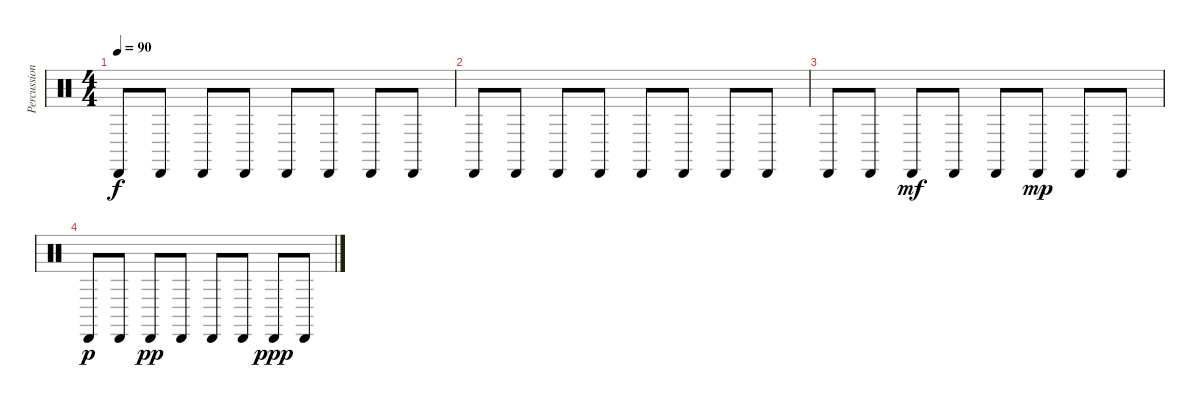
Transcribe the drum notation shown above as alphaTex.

\track ("Percussion." "Percussion") {instrument percussion}
\staff {score}
\articulation defaults
\ts (4 4)
\tempo 90
\clef neutral
\ks c "Cabasa (hit)".8{dy f} "Cabasa (hit)".8 "Cabasa (hit)".8 "Cabasa (hit)".8 "Cabasa (hit)".8 "Cabasa (hit)".8 "Cabasa (hit)".8 "Cabasa (hit)".8
|
"Cabasa (hit)".8 "Cabasa (hit)".8 "Cabasa (hit)".8 "Cabasa (hit)".8 "Cabasa (hit)".8 "Cabasa (hit)".8 "Cabasa (hit)".8 "Cabasa (hit)".8 |
"Cabasa (hit)".8 "Cabasa (hit)".8 "Cabasa (hit)".8{dy mf} "Cabasa (hit)".8 "Cabasa (hit)".8 "Cabasa (hit)".8{dy mp} "Cabasa (hit)".8 "Cabasa (hit)".8 |
"Cabasa (hit)".8{dy p} "Cabasa (hit)".8 "Cabasa (hit)".8{dy pp} "Cabasa (hit)".8 "Cabasa (hit)".8 "Cabasa (hit)".8 "Cabasa (hit)".8{dy ppp} "Cabasa (hit)".8
